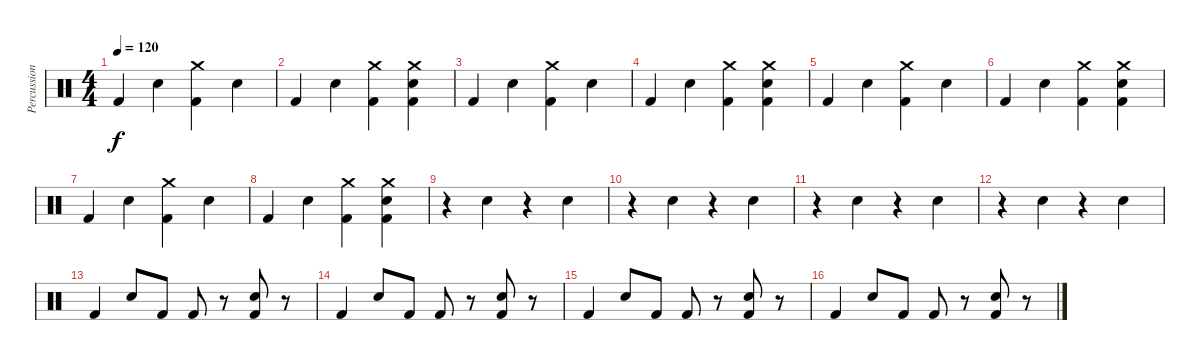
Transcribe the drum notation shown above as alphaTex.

\track ("Percussion" "Percussion") {instrument percussion}
\staff {score}
\articulation defaults
\ts (4 4)
\tempo 120
\clef neutral
\ks c "Kick (hit) 2".4{dy f} "Hand Clap (hit)".4
("Crash medium (hit)" "Kick (hit) 2").4 "Hand Clap (hit)".4 |
"Kick (hit) 2".4 "Hand Clap (hit)".4 ("Crash medium (hit)" "Kick (hit) 2").4 ("Crash medium (hit)" "Hand Clap (hit)" "Kick (hit) 2").4 |
"Kick (hit) 2".4 "Hand Clap (hit)".4 ("Crash medium (hit)" "Kick (hit) 2").4 "Hand Clap (hit)".4 |
"Kick (hit) 2".4 "Hand Clap (hit)".4 ("Crash medium (hit)" "Kick (hit) 2").4 ("Crash medium (hit)" "Hand Clap (hit)" "Kick (hit) 2").4 |
"Kick (hit) 2".4 "Hand Clap (hit)".4 ("Crash medium (hit)" "Kick (hit) 2").4 "Hand Clap (hit)".4 |
"Kick (hit) 2".4 "Hand Clap (hit)".4 ("Crash medium (hit)" "Kick (hit) 2").4 ("Crash medium (hit)" "Hand Clap (hit)" "Kick (hit) 2").4 |
"Kick (hit) 2".4 "Hand Clap (hit)".4 ("Crash medium (hit)" "Kick (hit) 2").4 "Hand Clap (hit)".4 |
"Kick (hit) 2".4 "Hand Clap (hit)".4 ("Crash medium (hit)" "Kick (hit) 2").4 ("Crash medium (hit)" "Hand Clap (hit)" "Kick (hit) 2").4 |
r.4 "Hand Clap (hit)".4 r.4 "Hand Clap (hit)".4 |
r.4 "Hand Clap (hit)".4 r.4 "Hand Clap (hit)".4 |
r.4 "Hand Clap (hit)".4 r.4 "Hand Clap (hit)".4 |
r.4 "Hand Clap (hit)".4 r.4 "Hand Clap (hit)".4 |
"Kick (hit) 2".4 "Hand Clap (hit)".8 "Kick (hit) 2".8 "Kick (hit) 2".8 r.8 ("Hand Clap (hit)" "Kick (hit) 2").8 r.8 |
"Kick (hit) 2".4 "Hand Clap (hit)".8 "Kick (hit) 2".8 "Kick (hit) 2".8 r.8 ("Hand Clap (hit)" "Kick (hit) 2").8 r.8 |
"Kick (hit) 2".4 "Hand Clap (hit)".8 "Kick (hit) 2".8 "Kick (hit) 2".8 r.8 ("Hand Clap (hit)" "Kick (hit) 2").8 r.8 |
"Kick (hit) 2".4 "Hand Clap (hit)".8 "Kick (hit) 2".8 "Kick (hit) 2".8 r.8 ("Hand Clap (hit)" "Kick (hit) 2").8 r.8
